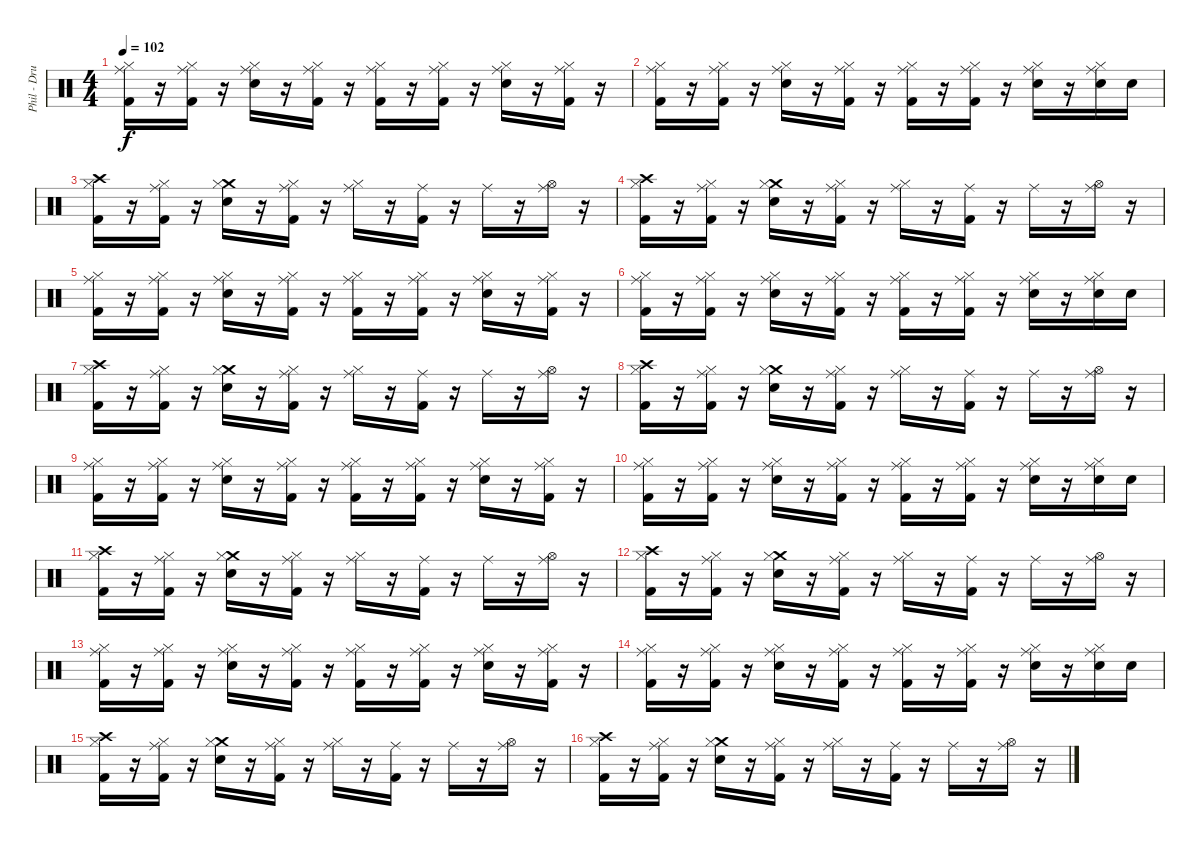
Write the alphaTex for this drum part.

\track ("Phil - Drums" "Phil - Dru") {instrument percussion}
\staff {score}
\articulation defaults
\ts (4 4)
\tempo 102
\clef neutral
\ks c
("Ride (middle)" "Kick (hit) 2" "Hi-Hat (closed)").16{dy f} r.16 ("Ride (middle)" "Kick (hit) 2" "Hi-Hat (closed)").16 r.16 ("Ride (middle)" "Electric Snare (hit)" "Hi-Hat (closed)").16 r.16 ("Ride (middle)" "Kick (hit) 2" "Hi-Hat (closed)").16 r.16 ("Ride (middle)" "Kick (hit) 2" "Hi-Hat (closed)").16 r.16 ("Ride (middle)" "Kick (hit) 2" "Hi-Hat (closed)").16 r.16 ("Ride (middle)" "Electric Snare (hit)" "Hi-Hat (closed)").16 r.16 ("Ride (middle)" "Kick (hit) 2" "Hi-Hat (closed)").16 r.16 |
("Ride (middle)" "Kick (hit) 2" "Hi-Hat (closed)").16 r.16 ("Ride (middle)" "Kick (hit) 2" "Hi-Hat (closed)").16 r.16 ("Ride (middle)" "Electric Snare (hit)" "Hi-Hat (closed)").16 r.16 ("Ride (middle)" "Kick (hit) 2" "Hi-Hat (closed)").16 r.16 ("Ride (middle)" "Kick (hit) 2" "Hi-Hat (closed)").16 r.16 ("Ride (middle)" "Kick (hit) 2" "Hi-Hat (closed)").16 r.16 ("Ride (middle)" "Electric Snare (hit)" "Hi-Hat (closed)").16 r.16 ("Ride (middle)" "Electric Snare (hit)" "Hi-Hat (closed)").16 "Electric Snare (hit)".16 |
("Crash high (hit)" "Kick (hit) 2" "Hi-Hat (closed)").16 r.16 ("Ride (middle)" "Kick (hit) 2" "Hi-Hat (closed)").16 r.16 ("Crash medium (hit)" "Electric Snare (hit)" "Hi-Hat (closed)").16 r.16 ("Ride (middle)" "Kick (hit) 2" "Hi-Hat (closed)").16 r.16 ("Ride (middle)" "Hi-Hat (closed)").16 r.16 ("Ride (middle)" "Kick (hit) 2").16 r.16 "Ride (middle)".16 r.16 ("Ride (middle)" "Hi-Hat (open)").16 r.16 |
("Crash high (hit)" "Kick (hit) 2" "Hi-Hat (closed)").16 r.16 ("Ride (middle)" "Kick (hit) 2" "Hi-Hat (closed)").16 r.16 ("Crash medium (hit)" "Electric Snare (hit)" "Hi-Hat (closed)").16 r.16 ("Ride (middle)" "Kick (hit) 2" "Hi-Hat (closed)").16 r.16 ("Ride (middle)" "Hi-Hat (closed)").16 r.16 ("Ride (middle)" "Kick (hit) 2").16 r.16 "Ride (middle)".16 r.16 ("Ride (middle)" "Hi-Hat (open)").16 r.16 |
("Ride (middle)" "Kick (hit) 2" "Hi-Hat (closed)").16 r.16 ("Ride (middle)" "Kick (hit) 2" "Hi-Hat (closed)").16 r.16 ("Ride (middle)" "Electric Snare (hit)" "Hi-Hat (closed)").16 r.16 ("Ride (middle)" "Kick (hit) 2" "Hi-Hat (closed)").16 r.16 ("Ride (middle)" "Kick (hit) 2" "Hi-Hat (closed)").16 r.16 ("Ride (middle)" "Kick (hit) 2" "Hi-Hat (closed)").16 r.16 ("Ride (middle)" "Electric Snare (hit)" "Hi-Hat (closed)").16 r.16 ("Ride (middle)" "Kick (hit) 2" "Hi-Hat (closed)").16 r.16 |
("Ride (middle)" "Kick (hit) 2" "Hi-Hat (closed)").16 r.16 ("Ride (middle)" "Kick (hit) 2" "Hi-Hat (closed)").16 r.16 ("Ride (middle)" "Electric Snare (hit)" "Hi-Hat (closed)").16 r.16 ("Ride (middle)" "Kick (hit) 2" "Hi-Hat (closed)").16 r.16 ("Ride (middle)" "Kick (hit) 2" "Hi-Hat (closed)").16 r.16 ("Ride (middle)" "Kick (hit) 2" "Hi-Hat (closed)").16 r.16 ("Ride (middle)" "Electric Snare (hit)" "Hi-Hat (closed)").16 r.16 ("Ride (middle)" "Electric Snare (hit)" "Hi-Hat (closed)").16 "Electric Snare (hit)".16 |
("Crash high (hit)" "Kick (hit) 2" "Hi-Hat (closed)").16 r.16 ("Ride (middle)" "Kick (hit) 2" "Hi-Hat (closed)").16 r.16 ("Crash medium (hit)" "Electric Snare (hit)" "Hi-Hat (closed)").16 r.16 ("Ride (middle)" "Kick (hit) 2" "Hi-Hat (closed)").16 r.16 ("Ride (middle)" "Hi-Hat (closed)").16 r.16 ("Ride (middle)" "Kick (hit) 2").16 r.16 "Ride (middle)".16 r.16 ("Ride (middle)" "Hi-Hat (open)").16 r.16 |
("Crash high (hit)" "Kick (hit) 2" "Hi-Hat (closed)").16 r.16 ("Ride (middle)" "Kick (hit) 2" "Hi-Hat (closed)").16 r.16 ("Crash medium (hit)" "Electric Snare (hit)" "Hi-Hat (closed)").16 r.16 ("Ride (middle)" "Kick (hit) 2" "Hi-Hat (closed)").16 r.16 ("Ride (middle)" "Hi-Hat (closed)").16 r.16 ("Ride (middle)" "Kick (hit) 2").16 r.16 "Ride (middle)".16 r.16 ("Ride (middle)" "Hi-Hat (open)").16 r.16 |
("Ride (middle)" "Kick (hit) 2" "Hi-Hat (closed)").16 r.16 ("Ride (middle)" "Kick (hit) 2" "Hi-Hat (closed)").16 r.16 ("Ride (middle)" "Electric Snare (hit)" "Hi-Hat (closed)").16 r.16 ("Ride (middle)" "Kick (hit) 2" "Hi-Hat (closed)").16 r.16 ("Ride (middle)" "Kick (hit) 2" "Hi-Hat (closed)").16 r.16 ("Ride (middle)" "Kick (hit) 2" "Hi-Hat (closed)").16 r.16 ("Ride (middle)" "Electric Snare (hit)" "Hi-Hat (closed)").16 r.16 ("Ride (middle)" "Kick (hit) 2" "Hi-Hat (closed)").16 r.16 |
("Ride (middle)" "Kick (hit) 2" "Hi-Hat (closed)").16 r.16 ("Ride (middle)" "Kick (hit) 2" "Hi-Hat (closed)").16 r.16 ("Ride (middle)" "Electric Snare (hit)" "Hi-Hat (closed)").16 r.16 ("Ride (middle)" "Kick (hit) 2" "Hi-Hat (closed)").16 r.16 ("Ride (middle)" "Kick (hit) 2" "Hi-Hat (closed)").16 r.16 ("Ride (middle)" "Kick (hit) 2" "Hi-Hat (closed)").16 r.16 ("Ride (middle)" "Electric Snare (hit)" "Hi-Hat (closed)").16 r.16 ("Ride (middle)" "Electric Snare (hit)" "Hi-Hat (closed)").16 "Electric Snare (hit)".16 |
("Crash high (hit)" "Kick (hit) 2" "Hi-Hat (closed)").16 r.16 ("Ride (middle)" "Kick (hit) 2" "Hi-Hat (closed)").16 r.16 ("Crash medium (hit)" "Electric Snare (hit)" "Hi-Hat (closed)").16 r.16 ("Ride (middle)" "Kick (hit) 2" "Hi-Hat (closed)").16 r.16 ("Ride (middle)" "Hi-Hat (closed)").16 r.16 ("Ride (middle)" "Kick (hit) 2").16 r.16 "Ride (middle)".16 r.16 ("Ride (middle)" "Hi-Hat (open)").16 r.16 |
("Crash high (hit)" "Kick (hit) 2" "Hi-Hat (closed)").16 r.16 ("Ride (middle)" "Kick (hit) 2" "Hi-Hat (closed)").16 r.16 ("Crash medium (hit)" "Electric Snare (hit)" "Hi-Hat (closed)").16 r.16 ("Ride (middle)" "Kick (hit) 2" "Hi-Hat (closed)").16 r.16 ("Ride (middle)" "Hi-Hat (closed)").16 r.16 ("Ride (middle)" "Kick (hit) 2").16 r.16 "Ride (middle)".16 r.16 ("Ride (middle)" "Hi-Hat (open)").16 r.16 |
("Ride (middle)" "Kick (hit) 2" "Hi-Hat (closed)").16 r.16 ("Ride (middle)" "Kick (hit) 2" "Hi-Hat (closed)").16 r.16 ("Ride (middle)" "Electric Snare (hit)" "Hi-Hat (closed)").16 r.16 ("Ride (middle)" "Kick (hit) 2" "Hi-Hat (closed)").16 r.16 ("Ride (middle)" "Kick (hit) 2" "Hi-Hat (closed)").16 r.16 ("Ride (middle)" "Kick (hit) 2" "Hi-Hat (closed)").16 r.16 ("Ride (middle)" "Electric Snare (hit)" "Hi-Hat (closed)").16 r.16 ("Ride (middle)" "Kick (hit) 2" "Hi-Hat (closed)").16 r.16 |
("Ride (middle)" "Kick (hit) 2" "Hi-Hat (closed)").16 r.16 ("Ride (middle)" "Kick (hit) 2" "Hi-Hat (closed)").16 r.16 ("Ride (middle)" "Electric Snare (hit)" "Hi-Hat (closed)").16 r.16 ("Ride (middle)" "Kick (hit) 2" "Hi-Hat (closed)").16 r.16 ("Ride (middle)" "Kick (hit) 2" "Hi-Hat (closed)").16 r.16 ("Ride (middle)" "Kick (hit) 2" "Hi-Hat (closed)").16 r.16 ("Ride (middle)" "Electric Snare (hit)" "Hi-Hat (closed)").16 r.16 ("Ride (middle)" "Electric Snare (hit)" "Hi-Hat (closed)").16 "Electric Snare (hit)".16 |
("Crash high (hit)" "Kick (hit) 2" "Hi-Hat (closed)").16 r.16 ("Ride (middle)" "Kick (hit) 2" "Hi-Hat (closed)").16 r.16 ("Crash medium (hit)" "Electric Snare (hit)" "Hi-Hat (closed)").16 r.16 ("Ride (middle)" "Kick (hit) 2" "Hi-Hat (closed)").16 r.16 ("Ride (middle)" "Hi-Hat (closed)").16 r.16 ("Ride (middle)" "Kick (hit) 2").16 r.16 "Ride (middle)".16 r.16 ("Ride (middle)" "Hi-Hat (open)").16 r.16 |
("Crash high (hit)" "Kick (hit) 2" "Hi-Hat (closed)").16 r.16 ("Ride (middle)" "Kick (hit) 2" "Hi-Hat (closed)").16 r.16 ("Crash medium (hit)" "Electric Snare (hit)" "Hi-Hat (closed)").16 r.16 ("Ride (middle)" "Kick (hit) 2" "Hi-Hat (closed)").16 r.16 ("Ride (middle)" "Hi-Hat (closed)").16 r.16 ("Ride (middle)" "Kick (hit) 2").16 r.16 "Ride (middle)".16 r.16 ("Ride (middle)" "Hi-Hat (open)").16 r.16
